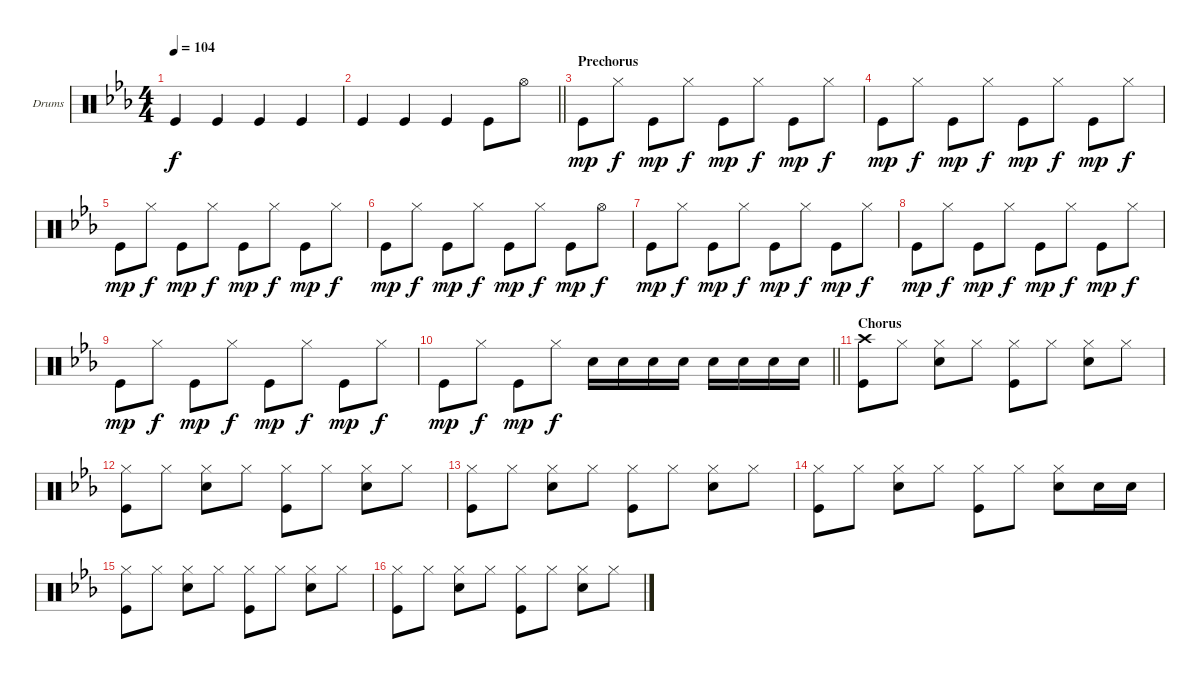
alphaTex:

\bracketExtendMode groupsimilarinstruments
\firstSystemTrackNameOrientation horizontal
\otherSystemsTrackNameOrientation horizontal
\track ("Drumkit" "Drums") {instrument percussion}
\staff {score}
\articulation defaults
\ts (4 4)
\tempo 104
\clef neutral
\ks eb "Kick (hit)".4{dy f} "Kick (hit)".4 "Kick (hit)".4 "Kick (hit)".4
|
\barLineRight lightlight "Kick (hit)".4 "Kick (hit)".4 "Kick (hit)".4 "Kick (hit)".8 "Hi-Hat (open)".8
|
\section ("" "Prechorus")
"Kick (hit)".8{dy mp} "Hi-Hat (closed)".8{dy f} "Kick (hit)".8{dy mp} "Hi-Hat (closed)".8{dy f} "Kick (hit)".8{dy mp} "Hi-Hat (closed)".8{dy f} "Kick (hit)".8{dy mp} "Hi-Hat (closed)".8{dy f} |
"Kick (hit)".8{dy mp} "Hi-Hat (closed)".8{dy f} "Kick (hit)".8{dy mp} "Hi-Hat (closed)".8{dy f} "Kick (hit)".8{dy mp} "Hi-Hat (closed)".8{dy f} "Kick (hit)".8{dy mp} "Hi-Hat (closed)".8{dy f} |
"Kick (hit)".8{dy mp} "Hi-Hat (closed)".8{dy f} "Kick (hit)".8{dy mp} "Hi-Hat (closed)".8{dy f} "Kick (hit)".8{dy mp} "Hi-Hat (closed)".8{dy f} "Kick (hit)".8{dy mp} "Hi-Hat (closed)".8{dy f} |
"Kick (hit)".8{dy mp} "Hi-Hat (closed)".8{dy f} "Kick (hit)".8{dy mp} "Hi-Hat (closed)".8{dy f} "Kick (hit)".8{dy mp} "Hi-Hat (closed)".8{dy f} "Kick (hit)".8{dy mp} "Hi-Hat (open)".8{dy f} |
"Kick (hit)".8{dy mp} "Hi-Hat (closed)".8{dy f} "Kick (hit)".8{dy mp} "Hi-Hat (closed)".8{dy f} "Kick (hit)".8{dy mp} "Hi-Hat (closed)".8{dy f} "Kick (hit)".8{dy mp} "Hi-Hat (closed)".8{dy f} |
"Kick (hit)".8{dy mp} "Hi-Hat (closed)".8{dy f} "Kick (hit)".8{dy mp} "Hi-Hat (closed)".8{dy f} "Kick (hit)".8{dy mp} "Hi-Hat (closed)".8{dy f} "Kick (hit)".8{dy mp} "Hi-Hat (closed)".8{dy f} |
"Kick (hit)".8{dy mp} "Hi-Hat (closed)".8{dy f} "Kick (hit)".8{dy mp} "Hi-Hat (closed)".8{dy f} "Kick (hit)".8{dy mp} "Hi-Hat (closed)".8{dy f} "Kick (hit)".8{dy mp} "Hi-Hat (closed)".8{dy f} |
\barLineRight lightlight "Kick (hit)".8{dy mp} "Hi-Hat (closed)".8{dy f} "Kick (hit)".8{dy mp} "Hi-Hat (closed)".8{dy f} "Snare (hit) 2".16 "Snare (hit) 2".16 "Snare (hit) 2".16 "Snare (hit) 2".16 "Snare (hit) 2".16 "Snare (hit) 2".16 "Snare (hit) 2".16 "Snare (hit) 2".16
|
\section ("" "Chorus")
("Crash high (hit)" "Kick (hit)").8 "Hi-Hat (closed)".8 ("Hi-Hat (closed)" "Snare (hit) 2").8 "Hi-Hat (closed)".8 ("Hi-Hat (closed)" "Kick (hit)").8 "Hi-Hat (closed)".8 ("Hi-Hat (closed)" "Snare (hit) 2").8 "Hi-Hat (closed)".8 |
("Hi-Hat (closed)" "Kick (hit)").8 "Hi-Hat (closed)".8 ("Hi-Hat (closed)" "Snare (hit) 2").8 "Hi-Hat (closed)".8 ("Hi-Hat (closed)" "Kick (hit)").8 "Hi-Hat (closed)".8 ("Hi-Hat (closed)" "Snare (hit) 2").8 "Hi-Hat (closed)".8 |
("Hi-Hat (closed)" "Kick (hit)").8 "Hi-Hat (closed)".8 ("Hi-Hat (closed)" "Snare (hit) 2").8 "Hi-Hat (closed)".8 ("Hi-Hat (closed)" "Kick (hit)").8 "Hi-Hat (closed)".8 ("Hi-Hat (closed)" "Snare (hit) 2").8 "Hi-Hat (closed)".8 |
("Hi-Hat (closed)" "Kick (hit)").8 "Hi-Hat (closed)".8 ("Hi-Hat (closed)" "Snare (hit) 2").8 "Hi-Hat (closed)".8 ("Hi-Hat (closed)" "Kick (hit)").8 "Hi-Hat (closed)".8 ("Hi-Hat (closed)" "Snare (hit) 2").8 "Snare (hit) 2".16 "Snare (hit) 2".16 |
("Hi-Hat (closed)" "Kick (hit)").8 "Hi-Hat (closed)".8 ("Hi-Hat (closed)" "Snare (hit) 2").8 "Hi-Hat (closed)".8 ("Hi-Hat (closed)" "Kick (hit)").8 "Hi-Hat (closed)".8 ("Hi-Hat (closed)" "Snare (hit) 2").8 "Hi-Hat (closed)".8 |
("Hi-Hat (closed)" "Kick (hit)").8 "Hi-Hat (closed)".8 ("Hi-Hat (closed)" "Snare (hit) 2").8 "Hi-Hat (closed)".8 ("Hi-Hat (closed)" "Kick (hit)").8 "Hi-Hat (closed)".8 ("Hi-Hat (closed)" "Snare (hit) 2").8 "Hi-Hat (closed)".8
